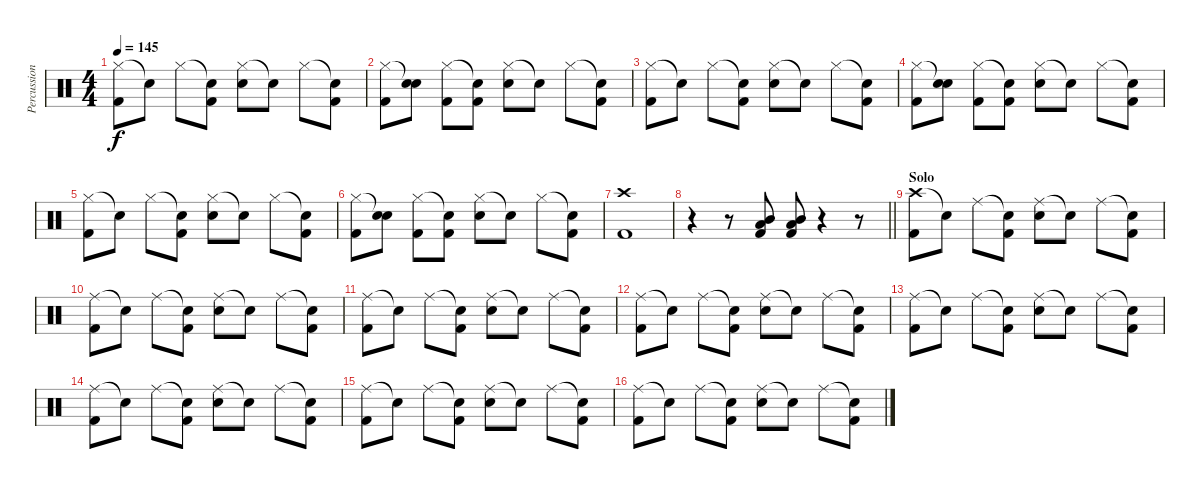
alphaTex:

\track ("Percussion" "Percussion") {instrument percussion}
\staff {score}
\articulation defaults
\ts (4 4)
\tempo 145
\clef neutral
\ks c
("Hi-Hat (closed)" "Kick (hit) 2").8{dy f} "Snare (hit)"{t}.8 "Hi-Hat (closed)".8 ("Snare (hit)"{t} "Kick (hit) 2").8 ("Hi-Hat (closed)" "Electric Snare (hit)").8 "Snare (hit)"{t}.8 "Hi-Hat (closed)".8 ("Snare (hit)"{t} "Kick (hit) 2").8 |
("Hi-Hat (closed)" "Kick (hit) 2").8 ("Snare (hit)"{t} "Electric Snare (hit)").8 ("Hi-Hat (closed)" "Kick (hit) 2").8 ("Snare (hit)"{t} "Kick (hit) 2").8 ("Hi-Hat (closed)" "Electric Snare (hit)").8 "Snare (hit)"{t}.8 "Hi-Hat (closed)".8 ("Snare (hit)"{t} "Kick (hit) 2").8 |
("Hi-Hat (closed)" "Kick (hit) 2").8 "Snare (hit)"{t}.8 "Hi-Hat (closed)".8 ("Snare (hit)"{t} "Kick (hit) 2").8 ("Hi-Hat (closed)" "Electric Snare (hit)").8 "Snare (hit)"{t}.8 "Hi-Hat (closed)".8 ("Snare (hit)"{t} "Kick (hit) 2").8 |
("Hi-Hat (closed)" "Kick (hit) 2").8 ("Snare (hit)"{t} "Electric Snare (hit)").8 ("Hi-Hat (closed)" "Kick (hit) 2").8 ("Snare (hit)"{t} "Kick (hit) 2").8 ("Hi-Hat (closed)" "Electric Snare (hit)").8 "Snare (hit)"{t}.8 "Hi-Hat (closed)".8 ("Snare (hit)"{t} "Kick (hit) 2").8 |
("Hi-Hat (closed)" "Kick (hit) 2").8 "Snare (hit)"{t}.8 "Hi-Hat (closed)".8 ("Snare (hit)"{t} "Kick (hit) 2").8 ("Hi-Hat (closed)" "Electric Snare (hit)").8 "Snare (hit)"{t}.8 "Hi-Hat (closed)".8 ("Snare (hit)"{t} "Kick (hit) 2").8 |
("Hi-Hat (closed)" "Kick (hit) 2").8 ("Snare (hit)"{t} "Electric Snare (hit)").8 ("Hi-Hat (closed)" "Kick (hit) 2").8 ("Snare (hit)"{t} "Kick (hit) 2").8 ("Hi-Hat (closed)" "Electric Snare (hit)").8 "Snare (hit)"{t}.8 "Hi-Hat (closed)".8 ("Snare (hit)"{t} "Kick (hit) 2").8 |
("Crash high (hit)" "Kick (hit) 2").1 |
\barLineRight lightlight
r.4 r.8 ("Mid Tom (hit)" "Low Floor Tom (hit)" "Kick (hit) 2").8 ("Mid Tom (hit)" "Low Floor Tom (hit)" "Kick (hit) 2").8 r.4 r.8 |
\section ("" "Solo")
("Crash high (hit)" "Kick (hit) 2").8 "Snare (hit)"{t}.8 "Ride (middle)".8 ("Snare (hit)"{t} "Kick (hit) 2").8 ("Ride (middle)" "Electric Snare (hit)").8 "Snare (hit)"{t}.8 "Ride (middle)".8 ("Snare (hit)"{t} "Kick (hit) 2").8 |
("Ride (middle)" "Kick (hit) 2").8 "Snare (hit)"{t}.8 "Ride (middle)".8 ("Snare (hit)"{t} "Kick (hit) 2").8 ("Ride (middle)" "Electric Snare (hit)").8 "Snare (hit)"{t}.8 "Ride (middle)".8 ("Snare (hit)"{t} "Kick (hit) 2").8 |
("Ride (middle)" "Kick (hit) 2").8 "Snare (hit)"{t}.8 "Ride (middle)".8 ("Snare (hit)"{t} "Kick (hit) 2").8 ("Ride (middle)" "Electric Snare (hit)").8 "Snare (hit)"{t}.8 "Ride (middle)".8 ("Snare (hit)"{t} "Kick (hit) 2").8 |
("Ride (middle)" "Kick (hit) 2").8 "Snare (hit)"{t}.8 "Ride (middle)".8 ("Snare (hit)"{t} "Kick (hit) 2").8 ("Ride (middle)" "Electric Snare (hit)").8 "Snare (hit)"{t}.8 "Ride (middle)".8 ("Snare (hit)"{t} "Kick (hit) 2").8 |
("Ride (middle)" "Kick (hit) 2").8 "Snare (hit)"{t}.8 "Ride (middle)".8 ("Snare (hit)"{t} "Kick (hit) 2").8 ("Ride (middle)" "Electric Snare (hit)").8 "Snare (hit)"{t}.8 "Ride (middle)".8 ("Snare (hit)"{t} "Kick (hit) 2").8 |
("Ride (middle)" "Kick (hit) 2").8 "Snare (hit)"{t}.8 "Ride (middle)".8 ("Snare (hit)"{t} "Kick (hit) 2").8 ("Ride (middle)" "Electric Snare (hit)").8 "Snare (hit)"{t}.8 "Ride (middle)".8 ("Snare (hit)"{t} "Kick (hit) 2").8 |
("Ride (middle)" "Kick (hit) 2").8 "Snare (hit)"{t}.8 "Ride (middle)".8 ("Snare (hit)"{t} "Kick (hit) 2").8 ("Ride (middle)" "Electric Snare (hit)").8 "Snare (hit)"{t}.8 "Ride (middle)".8 ("Snare (hit)"{t} "Kick (hit) 2").8 |
("Ride (middle)" "Kick (hit) 2").8 "Snare (hit)"{t}.8 "Ride (middle)".8 ("Snare (hit)"{t} "Kick (hit) 2").8 ("Ride (middle)" "Electric Snare (hit)").8 "Snare (hit)"{t}.8 "Ride (middle)".8 ("Snare (hit)"{t} "Kick (hit) 2").8
